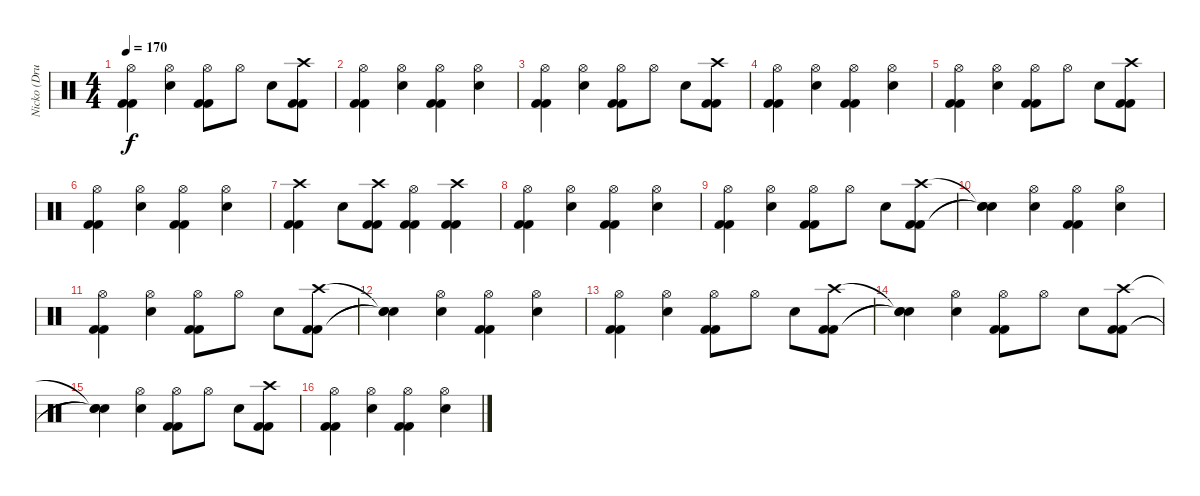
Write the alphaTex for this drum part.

\track ("Nicko (Drums)" "Nicko (Dru") {instrument percussion}
\staff {score}
\articulation defaults
\ts (4 4)
\tempo 170
\clef neutral
\ks c
("Hi-Hat (open)" "Kick (hit) 2" "Kick (hit) 2").4{dy f} ("Hi-Hat (open)" "Snare (hit) 2").4 ("Hi-Hat (open)" "Kick (hit) 2" "Kick (hit) 2").8 "Hi-Hat (open)".8 "Snare (hit) 2".8 ("Crash high (hit)" "Kick (hit) 2" "Kick (hit) 2").8 |
("Hi-Hat (open)" "Kick (hit) 2" "Kick (hit) 2").4 ("Hi-Hat (open)" "Snare (hit) 2").4 ("Hi-Hat (open)" "Kick (hit) 2" "Kick (hit) 2").4 ("Hi-Hat (open)" "Snare (hit) 2").4 |
("Hi-Hat (open)" "Kick (hit) 2" "Kick (hit) 2").4 ("Hi-Hat (open)" "Snare (hit) 2").4 ("Hi-Hat (open)" "Kick (hit) 2" "Kick (hit) 2").8 "Hi-Hat (open)".8 "Snare (hit) 2".8 ("Crash high (hit)" "Kick (hit) 2" "Kick (hit) 2").8 |
("Hi-Hat (open)" "Kick (hit) 2" "Kick (hit) 2").4 ("Hi-Hat (open)" "Snare (hit) 2").4 ("Hi-Hat (open)" "Kick (hit) 2" "Kick (hit) 2").4 ("Hi-Hat (open)" "Snare (hit) 2").4 |
("Hi-Hat (open)" "Kick (hit) 2" "Kick (hit) 2").4 ("Hi-Hat (open)" "Snare (hit) 2").4 ("Hi-Hat (open)" "Kick (hit) 2" "Kick (hit) 2").8 "Hi-Hat (open)".8 "Snare (hit) 2".8 ("Crash high (hit)" "Kick (hit) 2" "Kick (hit) 2").8 |
("Hi-Hat (open)" "Kick (hit) 2" "Kick (hit) 2").4 ("Hi-Hat (open)" "Snare (hit) 2").4 ("Hi-Hat (open)" "Kick (hit) 2" "Kick (hit) 2").4 ("Hi-Hat (open)" "Snare (hit) 2").4 |
("Crash high (hit)" "Kick (hit) 2" "Kick (hit) 2").4 "Snare (hit) 2".8 ("Crash high (hit)" "Kick (hit) 2" "Kick (hit) 2").8 ("Hi-Hat (open)" "Kick (hit) 2" "Kick (hit) 2").4 ("Crash high (hit)" "Kick (hit) 2" "Kick (hit) 2").4 |
("Hi-Hat (open)" "Kick (hit) 2" "Kick (hit) 2").4 ("Hi-Hat (open)" "Snare (hit) 2").4 ("Hi-Hat (open)" "Kick (hit) 2" "Kick (hit) 2").4 ("Hi-Hat (open)" "Snare (hit) 2").4 |
("Hi-Hat (open)" "Kick (hit) 2" "Kick (hit) 2").4 ("Hi-Hat (open)" "Snare (hit) 2").4 ("Hi-Hat (open)" "Kick (hit) 2" "Kick (hit) 2").8 "Hi-Hat (open)".8 "Snare (hit) 2".8 ("Crash high (hit)" "Kick (hit) 2" "Kick (hit) 2").8 |
("Snare (hit)"{t} "Snare (hit)"{t} "Snare (hit)"{t}).4 ("Hi-Hat (open)" "Snare (hit) 2").4 ("Hi-Hat (open)" "Kick (hit) 2" "Kick (hit) 2").4 ("Hi-Hat (open)" "Snare (hit) 2").4 |
("Hi-Hat (open)" "Kick (hit) 2" "Kick (hit) 2").4 ("Hi-Hat (open)" "Snare (hit) 2").4 ("Hi-Hat (open)" "Kick (hit) 2" "Kick (hit) 2").8 "Hi-Hat (open)".8 "Snare (hit) 2".8 ("Crash high (hit)" "Kick (hit) 2" "Kick (hit) 2").8 |
("Snare (hit)"{t} "Snare (hit)"{t} "Snare (hit)"{t}).4 ("Hi-Hat (open)" "Snare (hit) 2").4 ("Hi-Hat (open)" "Kick (hit) 2" "Kick (hit) 2").4 ("Hi-Hat (open)" "Snare (hit) 2").4 |
("Hi-Hat (open)" "Kick (hit) 2" "Kick (hit) 2").4 ("Hi-Hat (open)" "Snare (hit) 2").4 ("Hi-Hat (open)" "Kick (hit) 2" "Kick (hit) 2").8 "Hi-Hat (open)".8 "Snare (hit) 2".8 ("Crash high (hit)" "Kick (hit) 2" "Kick (hit) 2").8 |
("Snare (hit)"{t} "Snare (hit)"{t} "Snare (hit)"{t}).4 ("Hi-Hat (open)" "Snare (hit) 2").4 ("Hi-Hat (open)" "Kick (hit) 2" "Kick (hit) 2").8 "Hi-Hat (open)".8 "Snare (hit) 2".8 ("Crash high (hit)" "Kick (hit) 2" "Kick (hit) 2").8 |
("Snare (hit)"{t} "Snare (hit)"{t} "Snare (hit)"{t}).4 ("Hi-Hat (open)" "Snare (hit) 2").4 ("Hi-Hat (open)" "Kick (hit) 2" "Kick (hit) 2").8 "Hi-Hat (open)".8 "Snare (hit) 2".8 ("Crash high (hit)" "Kick (hit) 2" "Kick (hit) 2").8 |
("Hi-Hat (open)" "Kick (hit) 2" "Kick (hit) 2").4 ("Hi-Hat (open)" "Snare (hit) 2").4 ("Hi-Hat (open)" "Kick (hit) 2" "Kick (hit) 2").4 ("Hi-Hat (open)" "Snare (hit) 2").4
